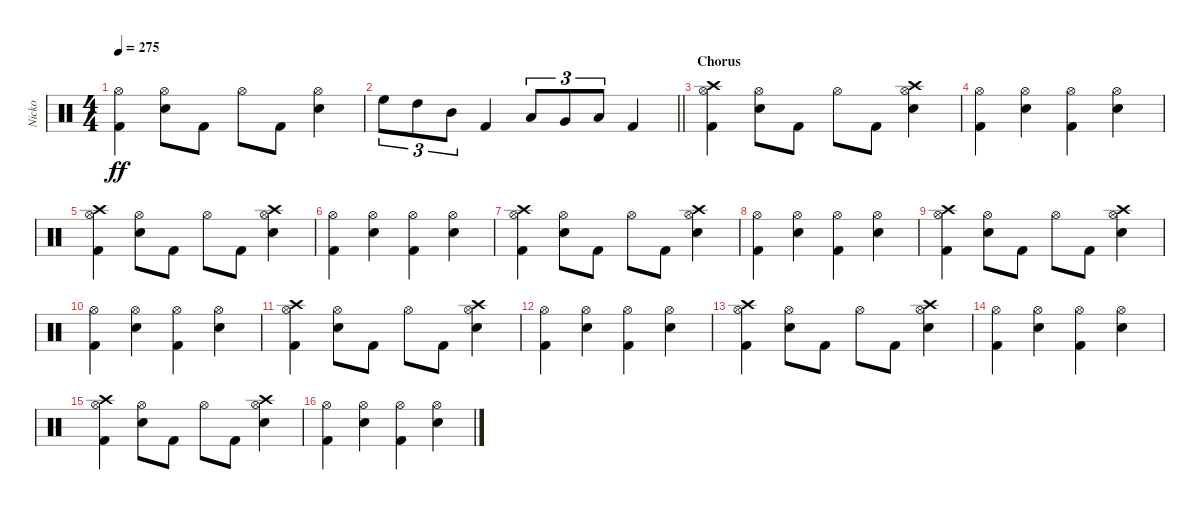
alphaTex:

\track ("Nicko" "Nicko") {instrument percussion}
\staff {score}
\articulation defaults
\ts (4 4)
\tempo 275
\clef neutral
\ks c
("Kick (hit) 2" "Hi-Hat (open)").4{dy ff} ("Snare (hit) 2" "Hi-Hat (open)").8 "Kick (hit) 2".8 "Hi-Hat (open)".8 "Kick (hit) 2".8 ("Snare (hit) 2" "Hi-Hat (open)").4 |
\barLineRight lightlight "High Floor Tom (hit)".8{tu (3 2)} "High Tom (hit)".8{tu (3 2)} "Mid Tom (hit)".8{tu (3 2)} "Kick (hit) 2".4 "Low Tom (hit)".8{tu (3 2)} "Very Low Tom (hit)".8{tu (3 2)} "Low Floor Tom (hit)".8{tu (3 2)} "Kick (hit) 2".4
|
\section ("" "Chorus")
("Kick (hit) 2" "Hi-Hat (open)" "Crash high (hit)").4 ("Snare (hit) 2" "Hi-Hat (open)").8 "Kick (hit) 2".8 "Hi-Hat (open)".8 "Kick (hit) 2".8 ("Snare (hit) 2" "Hi-Hat (open)" "Crash high (hit)").4 |
("Kick (hit) 2" "Hi-Hat (open)").4 ("Snare (hit) 2" "Hi-Hat (open)").4 ("Kick (hit) 2" "Hi-Hat (open)").4 ("Snare (hit) 2" "Hi-Hat (open)").4 |
("Kick (hit) 2" "Hi-Hat (open)" "Crash high (hit)").4 ("Snare (hit) 2" "Hi-Hat (open)").8 "Kick (hit) 2".8 "Hi-Hat (open)".8 "Kick (hit) 2".8 ("Snare (hit) 2" "Hi-Hat (open)" "Crash high (hit)").4 |
("Kick (hit) 2" "Hi-Hat (open)").4 ("Snare (hit) 2" "Hi-Hat (open)").4 ("Kick (hit) 2" "Hi-Hat (open)").4 ("Snare (hit) 2" "Hi-Hat (open)").4 |
("Kick (hit) 2" "Hi-Hat (open)" "Crash high (hit)").4 ("Snare (hit) 2" "Hi-Hat (open)").8 "Kick (hit) 2".8 "Hi-Hat (open)".8 "Kick (hit) 2".8 ("Snare (hit) 2" "Hi-Hat (open)" "Crash high (hit)").4 |
("Kick (hit) 2" "Hi-Hat (open)").4 ("Snare (hit) 2" "Hi-Hat (open)").4 ("Kick (hit) 2" "Hi-Hat (open)").4 ("Snare (hit) 2" "Hi-Hat (open)").4 |
("Kick (hit) 2" "Hi-Hat (open)" "Crash high (hit)").4 ("Snare (hit) 2" "Hi-Hat (open)").8 "Kick (hit) 2".8 "Hi-Hat (open)".8 "Kick (hit) 2".8 ("Snare (hit) 2" "Hi-Hat (open)" "Crash high (hit)").4 |
("Kick (hit) 2" "Hi-Hat (open)").4 ("Snare (hit) 2" "Hi-Hat (open)").4 ("Kick (hit) 2" "Hi-Hat (open)").4 ("Snare (hit) 2" "Hi-Hat (open)").4 |
("Kick (hit) 2" "Hi-Hat (open)" "Crash high (hit)").4 ("Snare (hit) 2" "Hi-Hat (open)").8 "Kick (hit) 2".8 "Hi-Hat (open)".8 "Kick (hit) 2".8 ("Snare (hit) 2" "Hi-Hat (open)" "Crash high (hit)").4 |
("Kick (hit) 2" "Hi-Hat (open)").4 ("Snare (hit) 2" "Hi-Hat (open)").4 ("Kick (hit) 2" "Hi-Hat (open)").4 ("Snare (hit) 2" "Hi-Hat (open)").4 |
("Kick (hit) 2" "Hi-Hat (open)" "Crash high (hit)").4 ("Snare (hit) 2" "Hi-Hat (open)").8 "Kick (hit) 2".8 "Hi-Hat (open)".8 "Kick (hit) 2".8 ("Snare (hit) 2" "Hi-Hat (open)" "Crash high (hit)").4 |
("Kick (hit) 2" "Hi-Hat (open)").4 ("Snare (hit) 2" "Hi-Hat (open)").4 ("Kick (hit) 2" "Hi-Hat (open)").4 ("Snare (hit) 2" "Hi-Hat (open)").4 |
("Kick (hit) 2" "Hi-Hat (open)" "Crash high (hit)").4 ("Snare (hit) 2" "Hi-Hat (open)").8 "Kick (hit) 2".8 "Hi-Hat (open)".8 "Kick (hit) 2".8 ("Snare (hit) 2" "Hi-Hat (open)" "Crash high (hit)").4 |
("Kick (hit) 2" "Hi-Hat (open)").4 ("Snare (hit) 2" "Hi-Hat (open)").4 ("Kick (hit) 2" "Hi-Hat (open)").4 ("Snare (hit) 2" "Hi-Hat (open)").4
